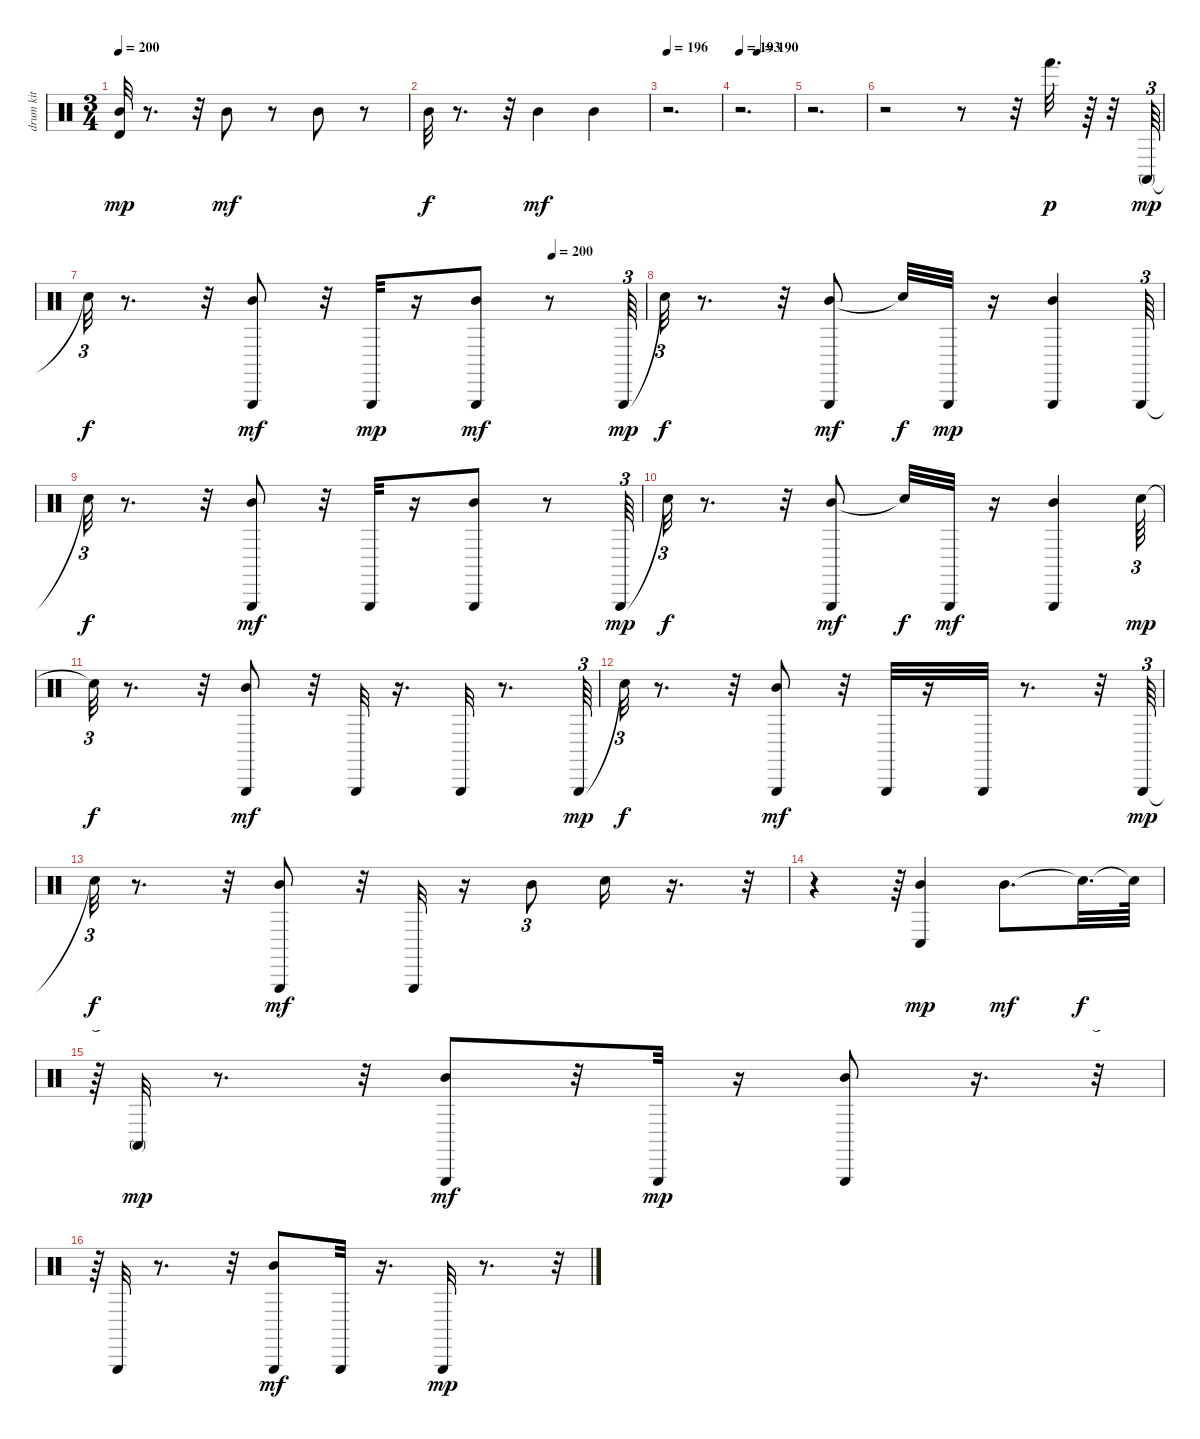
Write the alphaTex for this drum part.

\track (" drum kit (hi-hat/cymbals)" " drum kit ") {instrument percussion}
\staff {score}
\articulation defaults
\ts (3 4)
\tempo 200
\clef neutral
\ks c
("Mid Tom (hit)" "Timbale high (hit)").32{dy mp} r.8{d} r.32 "Mid Tom (hit)".8{dy mf} r.8 "Mid Tom (hit)".8 r.8 |
"Mid Tom (hit)".32{dy f} r.8{d} r.32 "Mid Tom (hit)".4{dy mf} "Mid Tom (hit)".4 |
\tempo 196
r.2{d} |
\tempo 193
\tempo (190 0.3333333333333333)
r.2{d} |
r.2{d} |
r.2 r.8 r.32 "Hand (hit)".32{d dy p} r.64 r.32 "Conga high (mute)".64{tu (3 2) dy mp} |
\tempo (200 0.8333333333333334)
"Snare (hit)"{t}.32{tu (3 2) dy f} r.8{d} r.32 ("Mid Tom (hit)" "Triangle (hit)").8{dy mf} r.32 "Triangle (hit)".32{dy mp} r.16 ("Mid Tom (hit)" "Triangle (hit)").8{dy mf} r.8 "Triangle (hit)".64{tu (3 2) dy mp} |
"Snare (hit)"{t}.32{tu (3 2) dy f} r.8{d} r.32 ("Mid Tom (hit)" "Triangle (hit)").8{dy mf} "Snare (hit)"{t}.32{dy f} "Triangle (hit)".32{dy mp} r.16 ("Mid Tom (hit)" "Triangle (hit)").4 "Triangle (hit)".64{tu (3 2)} |
"Snare (hit)"{t}.32{tu (3 2) dy f} r.8{d} r.32 ("Triangle (hit)" "Mid Tom (hit)").8{dy mf} r.32 "Triangle (hit)".32 r.16 ("Triangle (hit)" "Mid Tom (hit)").8 r.8 "Triangle (hit)".64{tu (3 2) dy mp} |
"Snare (hit)"{t}.32{tu (3 2) dy f} r.8{d} r.32 ("Mid Tom (hit)" "Triangle (hit)").8{dy mf} "Snare (hit)"{t}.32{dy f} "Triangle (hit)".32{dy mf} r.16 ("Mid Tom (hit)" "Triangle (hit)").4 "Snare (hit)".64{tu (3 2) dy mp} |
"Snare (hit)"{t}.32{tu (3 2) dy f} r.8{d} r.32 ("Mid Tom (hit)" "Triangle (hit)").8{dy mf} r.32 "Triangle (hit)".32 r.16{d} "Triangle (hit)".32 r.8{d} "Triangle (hit)".64{tu (3 2) dy mp} |
"Snare (hit)"{t}.32{tu (3 2) dy f} r.8{d} r.32 ("Mid Tom (hit)" "Triangle (hit)").8{dy mf} r.32 "Triangle (hit)".32 r.16 "Triangle (hit)".32 r.8{d} r.32 "Triangle (hit)".64{tu (3 2) dy mp} |
"Snare (hit)"{t}.32{tu (3 2) dy f} r.8{d} r.32 ("Mid Tom (hit)" "Triangle (hit)").8{dy mf} r.32 "Triangle (hit)".32 r.16 "Mid Tom (hit)".8{tu (3 2)} "Snare (hit)".16 r.16{d} r.32{tu (3 2)} |
r.4 r.64{tu (3 2)} ("Mid Tom (hit)" "Conga low (hit)").4{dy mp} "Mid Tom (hit)".8{d dy mf} "Snare (hit)"{t}.32{d dy f} "Snare (hit)"{t}.64 |
r.64{tu (3 2)} "Conga high (mute)".32{dy mp} r.8{d} r.32 ("Mid Tom (hit)" "Triangle (hit)").8{dy mf} r.32 "Triangle (hit)".32{dy mp} r.16 ("Mid Tom (hit)" "Triangle (hit)").8 r.16{d} r.32{tu (3 2)} |
r.64{tu (3 2)} "Triangle (hit)".32 r.8{d} r.32 ("Triangle (hit)" "Mid Tom (hit)").8{dy mf} "Triangle (hit)".32 r.16{d} "Triangle (hit)".32{dy mp} r.8{d} r.32{tu (3 2)}
